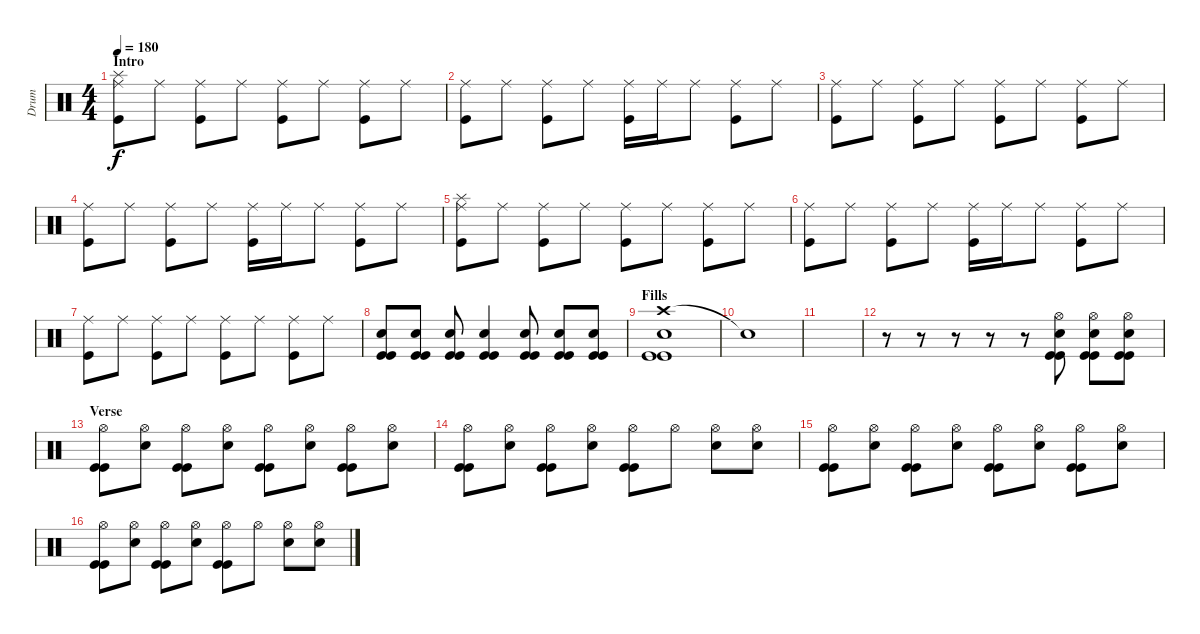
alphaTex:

\track ("Drum" "Drum") {instrument percussion}
\staff {score}
\articulation defaults
\ts (4 4)
\section ("" "Intro")
\tempo 180
\clef neutral
\ks c
("Ride (middle)" "Kick (hit)" "Splash (hit)").8{dy f} "Ride (middle)".8 ("Ride (middle)" "Kick (hit)").8 "Ride (middle)".8 ("Ride (middle)" "Kick (hit)").8 "Ride (middle)".8 ("Ride (middle)" "Kick (hit)").8 "Ride (middle)".8 |
("Ride (middle)" "Kick (hit)").8 "Ride (middle)".8 ("Ride (middle)" "Kick (hit)").8 "Ride (middle)".8 ("Ride (middle)" "Kick (hit)").16 "Ride (middle)".16 "Ride (middle)".8 ("Ride (middle)" "Kick (hit)").8 "Ride (middle)".8 |
("Ride (middle)" "Kick (hit)").8 "Ride (middle)".8 ("Ride (middle)" "Kick (hit)").8 "Ride (middle)".8 ("Ride (middle)" "Kick (hit)").8 "Ride (middle)".8 ("Ride (middle)" "Kick (hit)").8 "Ride (middle)".8 |
("Ride (middle)" "Kick (hit)").8 "Ride (middle)".8 ("Ride (middle)" "Kick (hit)").8 "Ride (middle)".8 ("Ride (middle)" "Kick (hit)").16 "Ride (middle)".16 "Ride (middle)".8 ("Ride (middle)" "Kick (hit)").8 "Ride (middle)".8 |
("Ride (middle)" "Kick (hit)" "Splash (hit)").8 "Ride (middle)".8 ("Ride (middle)" "Kick (hit)").8 "Ride (middle)".8 ("Ride (middle)" "Kick (hit)").8 "Ride (middle)".8 ("Ride (middle)" "Kick (hit)").8 "Ride (middle)".8 |
("Ride (middle)" "Kick (hit)").8 "Ride (middle)".8 ("Ride (middle)" "Kick (hit)").8 "Ride (middle)".8 ("Ride (middle)" "Kick (hit)").16 "Ride (middle)".16 "Ride (middle)".8 ("Ride (middle)" "Kick (hit)").8 "Ride (middle)".8 |
("Ride (middle)" "Kick (hit)").8 "Ride (middle)".8 ("Ride (middle)" "Kick (hit)").8 "Ride (middle)".8 ("Ride (middle)" "Kick (hit)").8 "Ride (middle)".8 ("Ride (middle)" "Kick (hit)").8 "Ride (middle)".8 |
("Kick (hit)" "Kick (hit)" "Electric Snare (hit)").8 ("Kick (hit)" "Kick (hit)" "Electric Snare (hit)").8 ("Kick (hit)" "Kick (hit)" "Electric Snare (hit)").8 ("Kick (hit)" "Kick (hit)" "Electric Snare (hit)").4 ("Kick (hit)" "Kick (hit)" "Electric Snare (hit)").8 ("Kick (hit)" "Kick (hit)" "Electric Snare (hit)").8 ("Kick (hit)" "Kick (hit)" "Electric Snare (hit)").8 |
\section ("" "Fills")
("Crash high (hit)" "Kick (hit)" "Kick (hit)" "Electric Snare (hit)").1 |
"Snare (hit)"{t}.1 |
|
r.8 r.8 r.8 r.8 r.8 ("Hi-Hat (open)" "Kick (hit)" "Kick (hit)" "Electric Snare (hit)").8 ("Hi-Hat (open)" "Kick (hit)" "Kick (hit)" "Electric Snare (hit)").8 ("Hi-Hat (open)" "Kick (hit)" "Kick (hit)" "Electric Snare (hit)").8 |
\section ("" "Verse")
("Hi-Hat (open)" "Kick (hit)" "Kick (hit)").8 ("Hi-Hat (open)" "Electric Snare (hit)").8 ("Hi-Hat (open)" "Kick (hit)" "Kick (hit)").8 ("Hi-Hat (open)" "Electric Snare (hit)").8 ("Hi-Hat (open)" "Kick (hit)" "Kick (hit)").8 ("Hi-Hat (open)" "Electric Snare (hit)").8 ("Hi-Hat (open)" "Kick (hit)" "Kick (hit)").8 ("Hi-Hat (open)" "Electric Snare (hit)").8 |
("Hi-Hat (open)" "Kick (hit)" "Kick (hit)").8 ("Hi-Hat (open)" "Electric Snare (hit)").8 ("Hi-Hat (open)" "Kick (hit)" "Kick (hit)").8 ("Hi-Hat (open)" "Electric Snare (hit)").8 ("Hi-Hat (open)" "Kick (hit)" "Kick (hit)").8 "Hi-Hat (open)".8 ("Hi-Hat (open)" "Electric Snare (hit)").8 ("Hi-Hat (open)" "Electric Snare (hit)").8 |
("Hi-Hat (open)" "Kick (hit)" "Kick (hit)").8 ("Hi-Hat (open)" "Electric Snare (hit)").8 ("Hi-Hat (open)" "Kick (hit)" "Kick (hit)").8 ("Hi-Hat (open)" "Electric Snare (hit)").8 ("Hi-Hat (open)" "Kick (hit)" "Kick (hit)").8 ("Hi-Hat (open)" "Electric Snare (hit)").8 ("Hi-Hat (open)" "Kick (hit)" "Kick (hit)").8 ("Hi-Hat (open)" "Electric Snare (hit)").8 |
("Hi-Hat (open)" "Kick (hit)" "Kick (hit)").8 ("Hi-Hat (open)" "Electric Snare (hit)").8 ("Hi-Hat (open)" "Kick (hit)" "Kick (hit)").8 ("Hi-Hat (open)" "Electric Snare (hit)").8 ("Hi-Hat (open)" "Kick (hit)" "Kick (hit)").8 "Hi-Hat (open)".8 ("Hi-Hat (open)" "Electric Snare (hit)").8 ("Hi-Hat (open)" "Electric Snare (hit)").8
